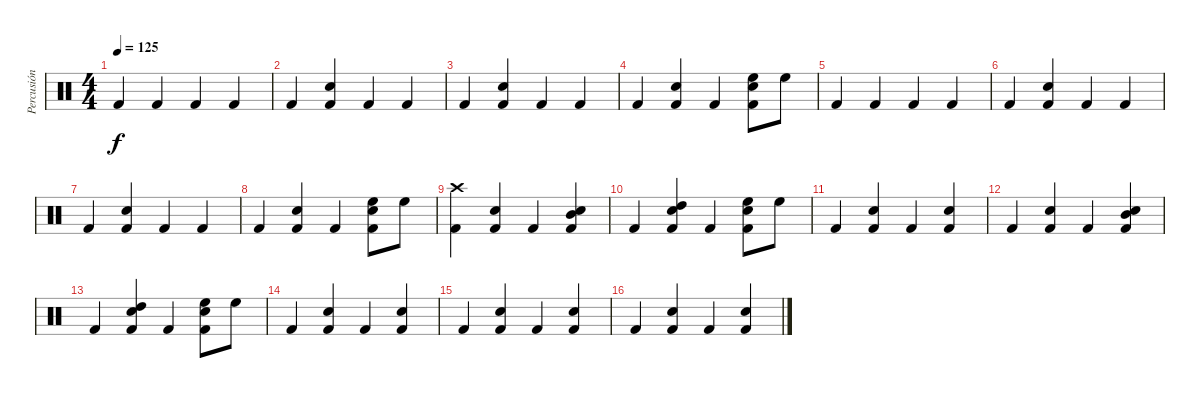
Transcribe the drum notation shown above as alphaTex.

\track ("Percusión" "Percusión") {instrument percussion}
\staff {score}
\articulation defaults
\ts (4 4)
\tempo 125
\clef neutral
\ks c "Kick (hit) 2".4{dy f} "Kick (hit) 2".4 "Kick (hit) 2".4 "Kick (hit) 2".4
|
"Kick (hit) 2".4 ("Snare (hit) 2" "Kick (hit) 2").4 "Kick (hit) 2".4 "Kick (hit) 2".4 |
"Kick (hit) 2".4 ("Snare (hit) 2" "Kick (hit) 2").4 "Kick (hit) 2".4 "Kick (hit) 2".4 |
"Kick (hit) 2".4 ("Snare (hit) 2" "Kick (hit) 2").4 "Kick (hit) 2".4 ("High Floor Tom (hit)" "Snare (hit) 2" "Kick (hit) 2").8 "High Floor Tom (hit)".8 |
"Kick (hit) 2".4 "Kick (hit) 2".4 "Kick (hit) 2".4 "Kick (hit) 2".4 |
"Kick (hit) 2".4 ("Snare (hit) 2" "Kick (hit) 2").4 "Kick (hit) 2".4 "Kick (hit) 2".4 |
"Kick (hit) 2".4 ("Snare (hit) 2" "Kick (hit) 2").4 "Kick (hit) 2".4 "Kick (hit) 2".4 |
"Kick (hit) 2".4 ("Snare (hit) 2" "Kick (hit) 2").4 "Kick (hit) 2".4 ("High Floor Tom (hit)" "Snare (hit) 2" "Kick (hit) 2").8 "High Floor Tom (hit)".8 |
("Crash high (hit)" "Kick (hit) 2").4 ("Snare (hit) 2" "Kick (hit) 2").4 "Kick (hit) 2".4 ("Mid Tom (hit)" "Snare (hit) 2" "Kick (hit) 2").4 |
"Kick (hit) 2".4 ("High Tom (hit)" "Snare (hit) 2" "Kick (hit) 2").4 "Kick (hit) 2".4 ("High Floor Tom (hit)" "Snare (hit) 2" "Kick (hit) 2").8 "High Floor Tom (hit)".8 |
"Kick (hit) 2".4 ("Snare (hit) 2" "Kick (hit) 2").4 "Kick (hit) 2".4 ("Snare (hit) 2" "Kick (hit) 2").4 |
"Kick (hit) 2".4 ("Snare (hit) 2" "Kick (hit) 2").4 "Kick (hit) 2".4 ("Mid Tom (hit)" "Snare (hit) 2" "Kick (hit) 2").4 |
"Kick (hit) 2".4 ("High Tom (hit)" "Snare (hit) 2" "Kick (hit) 2").4 "Kick (hit) 2".4 ("High Floor Tom (hit)" "Snare (hit) 2" "Kick (hit) 2").8 "High Floor Tom (hit)".8 |
"Kick (hit) 2".4 ("Snare (hit) 2" "Kick (hit) 2").4 "Kick (hit) 2".4 ("Snare (hit) 2" "Kick (hit) 2").4 |
"Kick (hit) 2".4 ("Snare (hit) 2" "Kick (hit) 2").4 "Kick (hit) 2".4 ("Snare (hit) 2" "Kick (hit) 2").4 |
"Kick (hit) 2".4 ("Snare (hit) 2" "Kick (hit) 2").4 "Kick (hit) 2".4 ("Snare (hit) 2" "Kick (hit) 2").4
